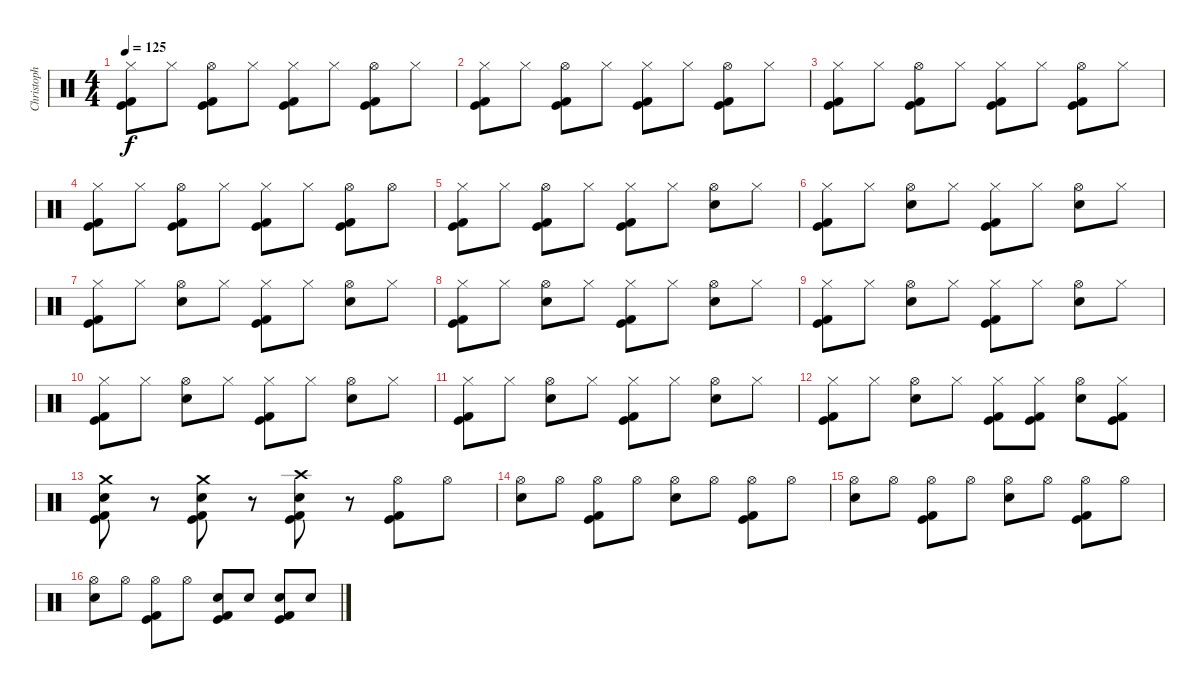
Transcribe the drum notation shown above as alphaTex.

\track ("Christoph (Drums)" "Christoph ") {instrument percussion}
\staff {score}
\articulation defaults
\ts (4 4)
\tempo 125
\clef neutral
\ks c
("Hi-Hat (closed)" "Kick (hit) 2" "Kick (hit)").8{dy f} "Hi-Hat (closed)".8 ("Hi-Hat (open)" "Kick (hit) 2" "Kick (hit)").8 "Hi-Hat (closed)".8 ("Hi-Hat (closed)" "Kick (hit) 2" "Kick (hit)").8 "Hi-Hat (closed)".8 ("Hi-Hat (open)" "Kick (hit) 2" "Kick (hit)").8 "Hi-Hat (closed)".8 |
("Hi-Hat (closed)" "Kick (hit) 2" "Kick (hit)").8 "Hi-Hat (closed)".8 ("Hi-Hat (open)" "Kick (hit) 2" "Kick (hit)").8 "Hi-Hat (closed)".8 ("Hi-Hat (closed)" "Kick (hit) 2" "Kick (hit)").8 "Hi-Hat (closed)".8 ("Hi-Hat (open)" "Kick (hit) 2" "Kick (hit)").8 "Hi-Hat (closed)".8 |
("Hi-Hat (closed)" "Kick (hit) 2" "Kick (hit)").8 "Hi-Hat (closed)".8 ("Hi-Hat (open)" "Kick (hit) 2" "Kick (hit)").8 "Hi-Hat (closed)".8 ("Hi-Hat (closed)" "Kick (hit) 2" "Kick (hit)").8 "Hi-Hat (closed)".8 ("Hi-Hat (open)" "Kick (hit) 2" "Kick (hit)").8 "Hi-Hat (closed)".8 |
("Hi-Hat (closed)" "Kick (hit) 2" "Kick (hit)").8 "Hi-Hat (closed)".8 ("Hi-Hat (open)" "Kick (hit) 2" "Kick (hit)").8 "Hi-Hat (closed)".8 ("Hi-Hat (closed)" "Kick (hit) 2" "Kick (hit)").8 "Hi-Hat (closed)".8 ("Hi-Hat (open)" "Kick (hit) 2" "Kick (hit)").8 "Hi-Hat (open)".8 |
("Hi-Hat (closed)" "Kick (hit) 2" "Kick (hit)").8 "Hi-Hat (closed)".8 ("Hi-Hat (open)" "Kick (hit) 2" "Kick (hit)").8 "Hi-Hat (closed)".8 ("Hi-Hat (closed)" "Kick (hit) 2" "Kick (hit)").8 "Hi-Hat (closed)".8 ("Hi-Hat (open)" "Snare (hit) 2").8 "Hi-Hat (closed)".8 |
("Hi-Hat (closed)" "Kick (hit) 2" "Kick (hit)").8 "Hi-Hat (closed)".8 ("Hi-Hat (open)" "Snare (hit) 2").8 "Hi-Hat (closed)".8 ("Hi-Hat (closed)" "Kick (hit) 2" "Kick (hit)").8 "Hi-Hat (closed)".8 ("Hi-Hat (open)" "Snare (hit) 2").8 "Hi-Hat (closed)".8 |
("Hi-Hat (closed)" "Kick (hit) 2" "Kick (hit)").8 "Hi-Hat (closed)".8 ("Hi-Hat (open)" "Snare (hit) 2").8 "Hi-Hat (closed)".8 ("Hi-Hat (closed)" "Kick (hit) 2" "Kick (hit)").8 "Hi-Hat (closed)".8 ("Hi-Hat (open)" "Snare (hit) 2").8 "Hi-Hat (closed)".8 |
("Hi-Hat (closed)" "Kick (hit) 2" "Kick (hit)").8 "Hi-Hat (closed)".8 ("Hi-Hat (open)" "Snare (hit) 2").8 "Hi-Hat (closed)".8 ("Hi-Hat (closed)" "Kick (hit) 2" "Kick (hit)").8 "Hi-Hat (closed)".8 ("Hi-Hat (open)" "Snare (hit) 2").8 "Hi-Hat (closed)".8 |
("Hi-Hat (closed)" "Kick (hit) 2" "Kick (hit)").8 "Hi-Hat (closed)".8 ("Hi-Hat (open)" "Snare (hit) 2").8 "Hi-Hat (closed)".8 ("Hi-Hat (closed)" "Kick (hit) 2" "Kick (hit)").8 "Hi-Hat (closed)".8 ("Hi-Hat (open)" "Snare (hit) 2").8 "Hi-Hat (closed)".8 |
("Hi-Hat (closed)" "Kick (hit) 2" "Kick (hit)").8 "Hi-Hat (closed)".8 ("Hi-Hat (open)" "Snare (hit) 2").8 "Hi-Hat (closed)".8 ("Hi-Hat (closed)" "Kick (hit) 2" "Kick (hit)").8 "Hi-Hat (closed)".8 ("Hi-Hat (open)" "Snare (hit) 2").8 "Hi-Hat (closed)".8 |
("Hi-Hat (closed)" "Kick (hit) 2" "Kick (hit)").8 "Hi-Hat (closed)".8 ("Hi-Hat (open)" "Snare (hit) 2").8 "Hi-Hat (closed)".8 ("Hi-Hat (closed)" "Kick (hit) 2" "Kick (hit)").8 "Hi-Hat (closed)".8 ("Hi-Hat (open)" "Snare (hit) 2").8 "Hi-Hat (closed)".8 |
("Hi-Hat (closed)" "Kick (hit) 2" "Kick (hit)").8 "Hi-Hat (closed)".8 ("Hi-Hat (open)" "Snare (hit) 2").8 "Hi-Hat (closed)".8 ("Hi-Hat (closed)" "Kick (hit) 2" "Kick (hit)").8 ("Hi-Hat (closed)" "Kick (hit) 2" "Kick (hit)").8 ("Hi-Hat (open)" "Snare (hit) 2").8 ("Hi-Hat (closed)" "Kick (hit)" "Kick (hit) 2").8 |
("Crash medium (hit)" "Snare (hit) 2" "Kick (hit) 2" "Kick (hit)").8 r.8 ("Crash medium (hit)" "Snare (hit) 2" "Kick (hit) 2" "Kick (hit)").8 r.8 ("Crash high (hit)" "Snare (hit) 2" "Kick (hit) 2" "Kick (hit)").8 r.8 ("Hi-Hat (open)" "Kick (hit) 2" "Kick (hit)").8 "Hi-Hat (open)".8 |
("Hi-Hat (open)" "Snare (hit) 2").8 "Hi-Hat (open)".8 ("Hi-Hat (open)" "Kick (hit) 2" "Kick (hit)").8 "Hi-Hat (open)".8 ("Hi-Hat (open)" "Snare (hit) 2").8 "Hi-Hat (open)".8 ("Hi-Hat (open)" "Kick (hit) 2" "Kick (hit)").8 "Hi-Hat (open)".8 |
("Hi-Hat (open)" "Snare (hit) 2").8 "Hi-Hat (open)".8 ("Hi-Hat (open)" "Kick (hit) 2" "Kick (hit)").8 "Hi-Hat (open)".8 ("Hi-Hat (open)" "Snare (hit) 2").8 "Hi-Hat (open)".8 ("Hi-Hat (open)" "Kick (hit) 2" "Kick (hit)").8 "Hi-Hat (open)".8 |
("Hi-Hat (open)" "Snare (hit) 2").8 "Hi-Hat (open)".8 ("Hi-Hat (open)" "Kick (hit) 2" "Kick (hit)").8 "Hi-Hat (open)".8 ("Snare (hit) 2" "Kick (hit) 2" "Kick (hit)").8 "Snare (hit) 2".8 ("Snare (hit) 2" "Kick (hit) 2" "Kick (hit)").8 "Snare (hit) 2".8
